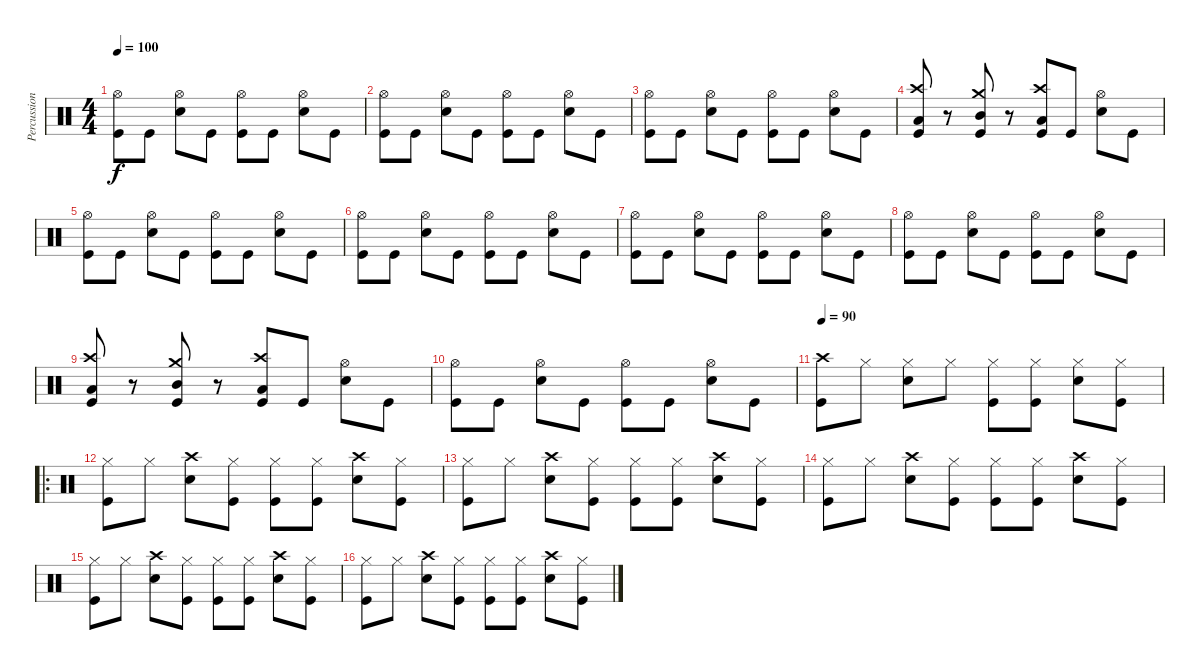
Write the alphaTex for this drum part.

\track ("Percussion" "Percussion") {instrument percussion}
\staff {score}
\articulation defaults
\ts (4 4)
\tempo 100
\clef neutral
\ks c
("Hi-Hat (open)" "Kick (hit)").8{dy f} "Kick (hit)".8 ("Hi-Hat (open)" "Snare (hit) 2").8 "Kick (hit)".8 ("Hi-Hat (open)" "Kick (hit)").8 "Kick (hit)".8 ("Hi-Hat (open)" "Snare (hit) 2").8 "Kick (hit)".8 |
("Hi-Hat (open)" "Kick (hit)").8 "Kick (hit)".8 ("Hi-Hat (open)" "Snare (hit) 2").8 "Kick (hit)".8 ("Hi-Hat (open)" "Kick (hit)").8 "Kick (hit)".8 ("Hi-Hat (open)" "Snare (hit) 2").8 "Kick (hit)".8 |
("Hi-Hat (open)" "Kick (hit)").8 "Kick (hit)".8 ("Hi-Hat (open)" "Snare (hit) 2").8 "Kick (hit)".8 ("Hi-Hat (open)" "Kick (hit)").8 "Kick (hit)".8 ("Hi-Hat (open)" "Snare (hit) 2").8 "Kick (hit)".8 |
("Crash high (hit)" "Low Tom (hit)" "Kick (hit)").8 r.8 ("Crash medium (hit)" "Mid Tom (hit)" "Kick (hit)").8 r.8 ("Crash high (hit)" "Low Tom (hit)" "Kick (hit)").8 "Kick (hit)".8 ("Hi-Hat (open)" "Snare (hit) 2").8 "Kick (hit)".8 |
("Hi-Hat (open)" "Kick (hit)").8 "Kick (hit)".8 ("Hi-Hat (open)" "Snare (hit) 2").8 "Kick (hit)".8 ("Hi-Hat (open)" "Kick (hit)").8 "Kick (hit)".8 ("Hi-Hat (open)" "Snare (hit) 2").8 "Kick (hit)".8 |
("Hi-Hat (open)" "Kick (hit)").8 "Kick (hit)".8 ("Hi-Hat (open)" "Snare (hit) 2").8 "Kick (hit)".8 ("Hi-Hat (open)" "Kick (hit)").8 "Kick (hit)".8 ("Hi-Hat (open)" "Snare (hit) 2").8 "Kick (hit)".8 |
("Hi-Hat (open)" "Kick (hit)").8 "Kick (hit)".8 ("Hi-Hat (open)" "Snare (hit) 2").8 "Kick (hit)".8 ("Hi-Hat (open)" "Kick (hit)").8 "Kick (hit)".8 ("Hi-Hat (open)" "Snare (hit) 2").8 "Kick (hit)".8 |
("Hi-Hat (open)" "Kick (hit)").8 "Kick (hit)".8 ("Hi-Hat (open)" "Snare (hit) 2").8 "Kick (hit)".8 ("Hi-Hat (open)" "Kick (hit)").8 "Kick (hit)".8 ("Hi-Hat (open)" "Snare (hit) 2").8 "Kick (hit)".8 |
("Crash high (hit)" "Low Tom (hit)" "Kick (hit)").8 r.8 ("Crash medium (hit)" "Mid Tom (hit)" "Kick (hit)").8 r.8 ("Crash high (hit)" "Low Tom (hit)" "Kick (hit)").8 "Kick (hit)".8 ("Hi-Hat (open)" "Snare (hit) 2").8 "Kick (hit)".8 |
("Hi-Hat (open)" "Kick (hit)").8 "Kick (hit)".8 ("Hi-Hat (open)" "Snare (hit) 2").8 "Kick (hit)".8 ("Hi-Hat (open)" "Kick (hit)").8 "Kick (hit)".8 ("Hi-Hat (open)" "Snare (hit) 2").8 "Kick (hit)".8 |
\tempo 90
("Crash high (hit)" "Kick (hit)").8 "Hi-Hat (closed)".8 ("Hi-Hat (closed)" "Snare (hit) 2").8 "Hi-Hat (closed)".8 ("Hi-Hat (closed)" "Kick (hit)").8 ("Hi-Hat (closed)" "Kick (hit)").8 ("Hi-Hat (closed)" "Snare (hit) 2").8 ("Hi-Hat (closed)" "Kick (hit)").8 |
\ro
("Hi-Hat (closed)" "Kick (hit)").8 "Hi-Hat (closed)".8 ("Crash high (hit)" "Snare (hit) 2").8 ("Hi-Hat (closed)" "Kick (hit)").8 ("Hi-Hat (closed)" "Kick (hit)").8 ("Hi-Hat (closed)" "Kick (hit)").8 ("Crash high (hit)" "Snare (hit) 2").8 ("Hi-Hat (closed)" "Kick (hit)").8 |
("Hi-Hat (closed)" "Kick (hit)").8 "Hi-Hat (closed)".8 ("Crash high (hit)" "Snare (hit) 2").8 ("Hi-Hat (closed)" "Kick (hit)").8 ("Hi-Hat (closed)" "Kick (hit)").8 ("Hi-Hat (closed)" "Kick (hit)").8 ("Crash high (hit)" "Snare (hit) 2").8 ("Hi-Hat (closed)" "Kick (hit)").8 |
("Hi-Hat (closed)" "Kick (hit)").8 "Hi-Hat (closed)".8 ("Crash high (hit)" "Snare (hit) 2").8 ("Hi-Hat (closed)" "Kick (hit)").8 ("Hi-Hat (closed)" "Kick (hit)").8 ("Hi-Hat (closed)" "Kick (hit)").8 ("Crash high (hit)" "Snare (hit) 2").8 ("Hi-Hat (closed)" "Kick (hit)").8 |
("Hi-Hat (closed)" "Kick (hit)").8 "Hi-Hat (closed)".8 ("Crash high (hit)" "Snare (hit) 2").8 ("Hi-Hat (closed)" "Kick (hit)").8 ("Hi-Hat (closed)" "Kick (hit)").8 ("Hi-Hat (closed)" "Kick (hit)").8 ("Crash high (hit)" "Snare (hit) 2").8 ("Hi-Hat (closed)" "Kick (hit)").8 |
("Hi-Hat (closed)" "Kick (hit)").8 "Hi-Hat (closed)".8 ("Crash high (hit)" "Snare (hit) 2").8 ("Hi-Hat (closed)" "Kick (hit)").8 ("Hi-Hat (closed)" "Kick (hit)").8 ("Hi-Hat (closed)" "Kick (hit)").8 ("Crash high (hit)" "Snare (hit) 2").8 ("Hi-Hat (closed)" "Kick (hit)").8
